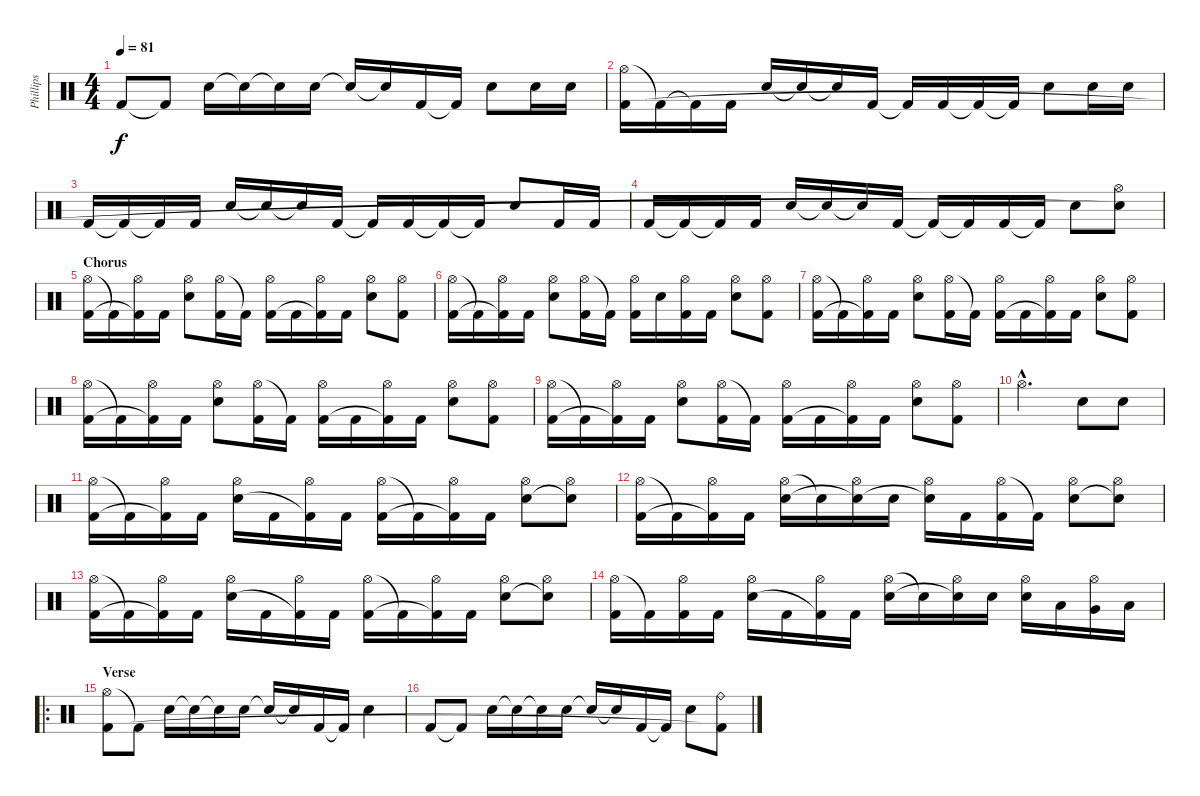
\track ("Phillips" "Phillips") {instrument percussion}
\staff {score}
\articulation defaults
\ts (4 4)
\tempo 81
\clef neutral
\ks c "Kick (hit) 2".8{dy f} "Kick (hit) 2"{t}.8 "Snare (hit) 2".16 "Snare (hit) 2"{t}.16 "Snare (hit) 2"{t}.16 "Snare (hit) 2".16 "Snare (hit) 2"{t}.16 "Snare (hit) 2"{t}.16 "Kick (hit) 2".16 "Kick (hit) 2"{t}.16 "Snare (hit) 2".8 "Snare (hit) 2".16 "Snare (hit) 2".16
|
("Hi-Hat (open)" "Kick (hit) 2").16 "Kick (hit) 2"{t}.16 "Kick (hit) 2"{t}.16 "Kick (hit) 2".16 "Snare (hit) 2".16 "Snare (hit) 2"{t}.16 "Snare (hit) 2"{t}.16 "Kick (hit) 2".16 "Kick (hit) 2"{t}.16 "Kick (hit) 2".16 "Kick (hit) 2"{t}.16 "Kick (hit) 2"{t}.16 "Snare (hit) 2".8 "Snare (hit) 2".16 "Snare (hit) 2".16 |
"Kick (hit) 2".16 "Kick (hit) 2"{t}.16 "Kick (hit) 2"{t}.16 "Kick (hit) 2".16 "Snare (hit) 2".16 "Snare (hit) 2"{t}.16 "Snare (hit) 2"{t}.16 "Kick (hit) 2".16 "Kick (hit) 2"{t}.16 "Kick (hit) 2".16 "Kick (hit) 2"{t}.16 "Kick (hit) 2"{t}.16 "Snare (hit) 2".8 "Kick (hit) 2".16 "Kick (hit) 2".16 |
"Kick (hit) 2".16 "Kick (hit) 2"{t}.16 "Kick (hit) 2"{t}.16 "Kick (hit) 2".16 "Snare (hit) 2".16 "Snare (hit) 2"{t}.16 "Snare (hit) 2"{t}.16 "Kick (hit) 2".16 "Kick (hit) 2"{t}.16 "Kick (hit) 2"{t}.16 "Kick (hit) 2".16 "Kick (hit) 2"{t}.16 "Snare (hit) 2".8 ("Hi-Hat (open)" "Snare (hit) 2"{t}).8 |
\section ("" "Chorus")
("Hi-Hat (open)" "Kick (hit) 2").16 "Kick (hit) 2"{t}.16 ("Hi-Hat (open)" "Kick (hit) 2"{t}).16 "Kick (hit) 2".16 ("Hi-Hat (open)" "Snare (hit) 2").8 ("Hi-Hat (open)" "Kick (hit) 2").16 "Kick (hit) 2"{t}.16 ("Hi-Hat (open)" "Kick (hit) 2").16 "Kick (hit) 2".16 ("Hi-Hat (open)" "Kick (hit) 2"{t}).16 "Kick (hit) 2".16 ("Hi-Hat (open)" "Snare (hit) 2").8 ("Hi-Hat (open)" "Kick (hit) 2").8 |
("Hi-Hat (open)" "Kick (hit) 2").16 "Kick (hit) 2"{t}.16 ("Hi-Hat (open)" "Kick (hit) 2"{t}).16 "Kick (hit) 2".16 ("Hi-Hat (open)" "Snare (hit) 2").8 ("Hi-Hat (open)" "Kick (hit) 2").16 "Kick (hit) 2"{t}.16 ("Hi-Hat (open)" "Kick (hit) 2").16 "Snare (hit) 2".16 ("Hi-Hat (open)" "Kick (hit) 2").16 "Kick (hit) 2".16 ("Hi-Hat (open)" "Snare (hit) 2").8 ("Hi-Hat (open)" "Kick (hit) 2").8 |
("Hi-Hat (open)" "Kick (hit) 2").16 "Kick (hit) 2"{t}.16 ("Hi-Hat (open)" "Kick (hit) 2"{t}).16 "Kick (hit) 2".16 ("Hi-Hat (open)" "Snare (hit) 2").8 ("Hi-Hat (open)" "Kick (hit) 2").16 "Kick (hit) 2"{t}.16 ("Hi-Hat (open)" "Kick (hit) 2").16 "Kick (hit) 2".16 ("Hi-Hat (open)" "Kick (hit) 2"{t}).16 "Kick (hit) 2".16 ("Hi-Hat (open)" "Snare (hit) 2").8 ("Hi-Hat (open)" "Kick (hit) 2").8 |
("Hi-Hat (open)" "Kick (hit) 2").16 "Kick (hit) 2"{t}.16 ("Hi-Hat (open)" "Kick (hit) 2"{t}).16 "Kick (hit) 2".16 ("Hi-Hat (open)" "Snare (hit) 2").8 ("Hi-Hat (open)" "Kick (hit) 2").16 "Kick (hit) 2"{t}.16 ("Hi-Hat (open)" "Kick (hit) 2").16 "Kick (hit) 2".16 ("Hi-Hat (open)" "Kick (hit) 2"{t}).16 "Kick (hit) 2".16 ("Hi-Hat (open)" "Snare (hit) 2").8 ("Hi-Hat (open)" "Kick (hit) 2").8 |
("Hi-Hat (open)" "Kick (hit) 2").16 "Kick (hit) 2"{t}.16 ("Hi-Hat (open)" "Kick (hit) 2"{t}).16 "Kick (hit) 2".16 ("Hi-Hat (open)" "Snare (hit) 2").8 ("Hi-Hat (open)" "Kick (hit) 2").16 "Kick (hit) 2"{t}.16 ("Hi-Hat (open)" "Kick (hit) 2").16 "Kick (hit) 2".16 ("Hi-Hat (open)" "Kick (hit) 2"{t}).16 "Kick (hit) 2".16 ("Hi-Hat (open)" "Snare (hit) 2").8 ("Hi-Hat (open)" "Kick (hit) 2").8 |
"Hi-Hat (open)"{hac}.2{d} "Snare (hit) 2".8 "Snare (hit) 2".8 |
("Hi-Hat (open)" "Kick (hit) 2").16 "Kick (hit) 2"{t}.16 ("Hi-Hat (open)" "Kick (hit) 2"{t}).16 "Kick (hit) 2".16 ("Hi-Hat (open)" "Snare (hit) 2").16 "Kick (hit) 2".16 ("Hi-Hat (open)" "Kick (hit) 2"{t}).16 "Kick (hit) 2".16 ("Hi-Hat (open)" "Kick (hit) 2").16 "Kick (hit) 2"{t}.16 ("Hi-Hat (open)" "Kick (hit) 2"{t}).16 "Kick (hit) 2".16 ("Hi-Hat (open)" "Snare (hit) 2").8 ("Hi-Hat (open)" "Snare (hit) 2"{t}).8 |
("Hi-Hat (open)" "Kick (hit) 2").16 "Kick (hit) 2"{t}.16 ("Hi-Hat (open)" "Kick (hit) 2"{t}).16 "Kick (hit) 2".16 ("Hi-Hat (open)" "Snare (hit) 2").16 "Snare (hit) 2"{t}.16 ("Hi-Hat (open)" "Snare (hit) 2"{t}).16 "Snare (hit) 2".16 ("Hi-Hat (open)" "Snare (hit) 2"{t}).16 "Kick (hit) 2".16 ("Hi-Hat (open)" "Kick (hit) 2").16 "Kick (hit) 2"{t}.16 ("Hi-Hat (open)" "Snare (hit) 2").8 ("Hi-Hat (open)" "Snare (hit) 2"{t}).8 |
("Hi-Hat (open)" "Kick (hit) 2").16 "Kick (hit) 2"{t}.16 ("Hi-Hat (open)" "Kick (hit) 2"{t}).16 "Kick (hit) 2".16 ("Hi-Hat (open)" "Snare (hit) 2").16 "Kick (hit) 2".16 ("Hi-Hat (open)" "Kick (hit) 2"{t}).16 "Kick (hit) 2".16 ("Hi-Hat (open)" "Kick (hit) 2").16 "Kick (hit) 2"{t}.16 ("Hi-Hat (open)" "Kick (hit) 2"{t}).16 "Kick (hit) 2".16 ("Hi-Hat (open)" "Snare (hit) 2").8 ("Hi-Hat (open)" "Snare (hit) 2"{t}).8 |
("Hi-Hat (open)" "Kick (hit) 2").16 "Kick (hit) 2"{t}.16 ("Hi-Hat (open)" "Kick (hit) 2").16 "Kick (hit) 2".16 ("Hi-Hat (open)" "Snare (hit) 2").16 "Kick (hit) 2".16 ("Hi-Hat (open)" "Kick (hit) 2"{t}).16 "Kick (hit) 2".16 ("Hi-Hat (open)" "Snare (hit) 2").16 "Snare (hit) 2"{t}.16 ("Hi-Hat (open)" "Snare (hit) 2"{t}).16 "Snare (hit) 2".16 ("Hi-Hat (open)" "Snare (hit) 2").16 "Low Tom (hit)".16 ("Hi-Hat (open)" "Very Low Tom (hit)").16 "Low Floor Tom (hit)".16 |
\ro
\section ("" "Verse")
("Hi-Hat (open)" "Kick (hit) 2").8 "Kick (hit) 2"{t}.8 "Snare (hit) 2".16 "Snare (hit) 2"{t}.16 "Snare (hit) 2"{t}.16 "Snare (hit) 2".16 "Snare (hit) 2"{t}.16 "Snare (hit) 2"{t}.16 "Kick (hit) 2".16 "Kick (hit) 2"{t}.16 "Snare (hit) 2".4 |
"Kick (hit) 2".8 "Kick (hit) 2"{t}.8 "Snare (hit) 2".16 "Snare (hit) 2"{t}.16 "Snare (hit) 2"{t}.16 "Snare (hit) 2".16 "Snare (hit) 2"{t}.16 "Snare (hit) 2"{t}.16 "Kick (hit) 2".16 "Kick (hit) 2"{t}.16 "Snare (hit) 2".8 ("Ride (bell)" "Kick (hit) 2"{t}).8
